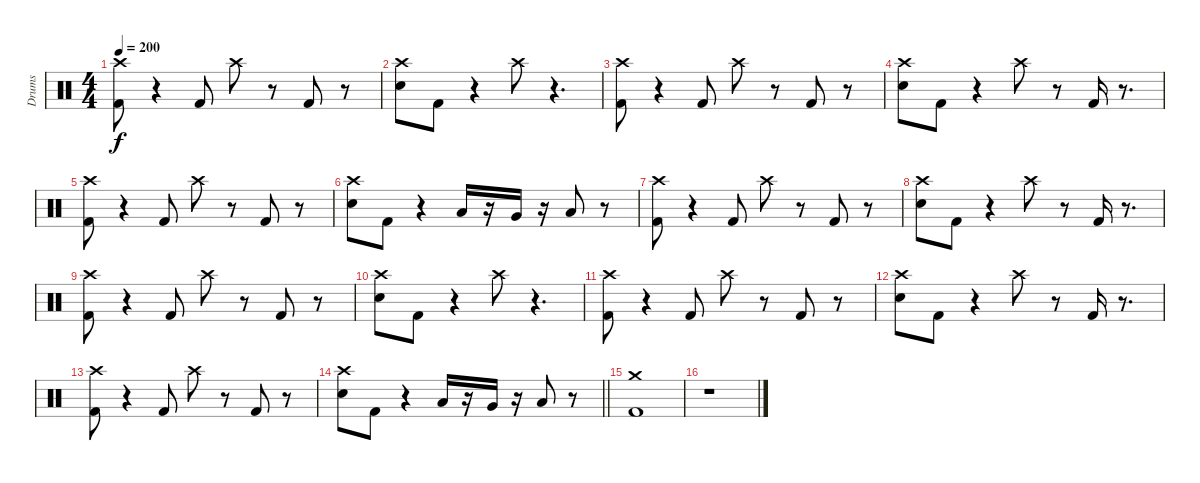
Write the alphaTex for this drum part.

\track ("Drums" "Drums") {instrument percussion}
\staff {score}
\articulation defaults
\ts (4 4)
\tempo 200
\clef neutral
\ks c
("Kick (hit) 2" "Crash high (hit)").8{dy f} r.4 "Kick (hit) 2".8 "Crash high (hit)".8 r.8 "Kick (hit) 2".8 r.8 |
("Snare (hit) 2" "Crash high (hit)").8 "Kick (hit) 2".8 r.4 "Crash high (hit)".8 r.4{d} |
("Kick (hit) 2" "Crash high (hit)").8 r.4 "Kick (hit) 2".8 "Crash high (hit)".8 r.8 "Kick (hit) 2".8 r.8 |
("Snare (hit) 2" "Crash high (hit)").8 "Kick (hit) 2".8 r.4 "Crash high (hit)".8 r.8 "Kick (hit) 2".16 r.8{d} |
("Kick (hit) 2" "Crash high (hit)").8 r.4 "Kick (hit) 2".8 "Crash high (hit)".8 r.8 "Kick (hit) 2".8 r.8 |
("Snare (hit) 2" "Crash high (hit)").8 "Kick (hit) 2".8 r.4 "Low Tom (hit)".16 r.16 "Very Low Tom (hit)".16 r.16 "Low Floor Tom (hit)".8 r.8 |
("Kick (hit) 2" "Crash high (hit)").8 r.4 "Kick (hit) 2".8 "Crash high (hit)".8 r.8 "Kick (hit) 2".8 r.8 |
("Snare (hit) 2" "Crash high (hit)").8 "Kick (hit) 2".8 r.4 "Crash high (hit)".8 r.8 "Kick (hit) 2".16 r.8{d} |
("Kick (hit) 2" "Crash high (hit)").8 r.4 "Kick (hit) 2".8 "Crash high (hit)".8 r.8 "Kick (hit) 2".8 r.8 |
("Snare (hit) 2" "Crash high (hit)").8 "Kick (hit) 2".8 r.4 "Crash high (hit)".8 r.4{d} |
("Kick (hit) 2" "Crash high (hit)").8 r.4 "Kick (hit) 2".8 "Crash high (hit)".8 r.8 "Kick (hit) 2".8 r.8 |
("Snare (hit) 2" "Crash high (hit)").8 "Kick (hit) 2".8 r.4 "Crash high (hit)".8 r.8 "Kick (hit) 2".16 r.8{d} |
("Kick (hit) 2" "Crash high (hit)").8 r.4 "Kick (hit) 2".8 "Crash high (hit)".8 r.8 "Kick (hit) 2".8 r.8 |
\barLineRight lightlight
("Snare (hit) 2" "Crash high (hit)").8 "Kick (hit) 2".8 r.4 "Low Tom (hit)".16 r.16 "Very Low Tom (hit)".16 r.16 "Low Floor Tom (hit)".8 r.8 |
\section ("" " ")
("Kick (hit) 2" "Crash medium (hit)").1 |
r.1
